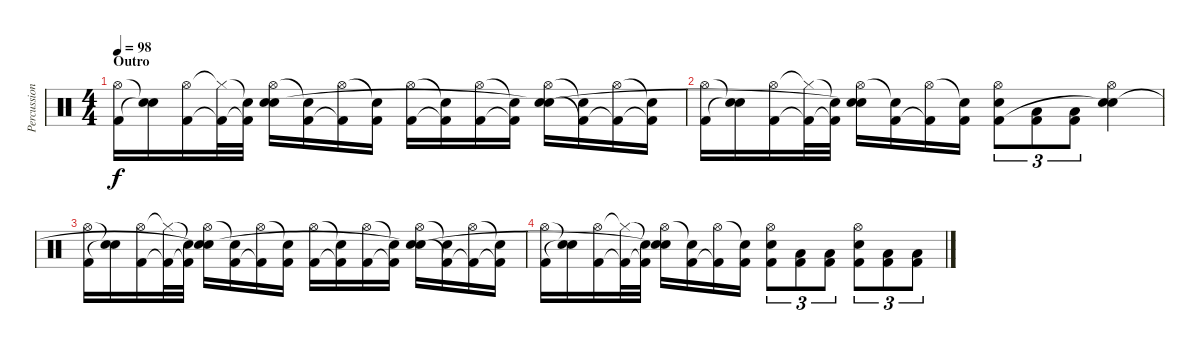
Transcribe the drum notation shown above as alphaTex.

\track ("Percussion" "Percussion") {instrument percussion}
\staff {score}
\articulation defaults
\ts (4 4)
\section ("" "Outro")
\tempo 98
\clef neutral
\ks c
("Hi-Hat (open)" "Kick (hit) 2").16{dy f} ("Snare (hit)"{t} "Snare (hit)"{t}).16 ("Hi-Hat (open)" "Kick (hit) 2").16 ("Hi-Hat (closed)"{t} "Kick (hit) 2"{t}).32 ("Snare (hit)"{t} "Kick (hit) 2"{t}).32 ("Hi-Hat (open)" "Electric Snare (hit)" "Snare (hit)"{t}).16 ("Snare (hit)"{t} "Kick (hit) 2").16 ("Hi-Hat (open)" "Kick (hit) 2"{t}).16 ("Snare (hit)"{t} "Kick (hit) 2").16 ("Hi-Hat (open)" "Kick (hit) 2").16 ("Snare (hit)"{t} "Kick (hit) 2"{t}).16 ("Hi-Hat (open)" "Kick (hit) 2").16 ("Snare (hit)"{t} "Kick (hit) 2"{t}).16 ("Hi-Hat (open)" "Electric Snare (hit)" "Snare (hit)"{t}).16 ("Snare (hit)"{t} "Kick (hit) 2"{t}).16 ("Hi-Hat (open)" "Kick (hit) 2"{t}).16 ("Snare (hit)"{t} "Kick (hit) 2"{t}).16 |
("Hi-Hat (open)" "Kick (hit) 2").16 ("Snare (hit)"{t} "Snare (hit)"{t}).16 ("Hi-Hat (open)" "Kick (hit) 2").16 ("Hi-Hat (closed)"{t} "Kick (hit) 2"{t}).32 ("Snare (hit)"{t} "Kick (hit) 2"{t}).32 ("Hi-Hat (open)" "Electric Snare (hit)" "Snare (hit)"{t}).16 ("Snare (hit)"{t} "Kick (hit) 2").16 ("Hi-Hat (open)" "Kick (hit) 2"{t}).16 ("Snare (hit)"{t} "Kick (hit) 2").16 ("Hi-Hat (open)" "Snare (hit) 2" "Kick (hit) 2").8{tu (3 2)} ("Low Tom (hit)" "Kick (hit) 2").8{tu (3 2)} ("Low Tom (hit)" "Kick (hit) 2").8{tu (3 2)} ("Hi-Hat (open)" "Electric Snare (hit)" "Snare (hit)"{t}).4 |
("Hi-Hat (open)" "Kick (hit) 2").16 ("Snare (hit)"{t} "Snare (hit)"{t}).16 ("Hi-Hat (open)" "Kick (hit) 2").16 ("Hi-Hat (closed)"{t} "Kick (hit) 2"{t}).32 ("Snare (hit)"{t} "Kick (hit) 2"{t}).32 ("Hi-Hat (open)" "Electric Snare (hit)" "Snare (hit)"{t}).16 ("Snare (hit)"{t} "Kick (hit) 2").16 ("Hi-Hat (open)" "Kick (hit) 2"{t}).16 ("Snare (hit)"{t} "Kick (hit) 2").16 ("Hi-Hat (open)" "Kick (hit) 2").16 ("Snare (hit)"{t} "Kick (hit) 2"{t}).16 ("Hi-Hat (open)" "Kick (hit) 2").16 ("Snare (hit)"{t} "Kick (hit) 2"{t}).16 ("Hi-Hat (open)" "Electric Snare (hit)" "Snare (hit)"{t}).16 ("Snare (hit)"{t} "Kick (hit) 2"{t}).16 ("Hi-Hat (open)" "Kick (hit) 2"{t}).16 ("Snare (hit)"{t} "Kick (hit) 2"{t}).16 |
("Hi-Hat (open)" "Kick (hit) 2").16 ("Snare (hit)"{t} "Snare (hit)"{t}).16 ("Hi-Hat (open)" "Kick (hit) 2").16 ("Hi-Hat (closed)"{t} "Kick (hit) 2"{t}).32 ("Snare (hit)"{t} "Kick (hit) 2"{t}).32 ("Hi-Hat (open)" "Electric Snare (hit)" "Snare (hit)"{t}).16 ("Snare (hit)"{t} "Kick (hit) 2").16 ("Hi-Hat (open)" "Kick (hit) 2"{t}).16 ("Snare (hit)"{t} "Kick (hit) 2").16 ("Hi-Hat (open)" "Snare (hit) 2" "Kick (hit) 2").8{tu (3 2)} ("Low Tom (hit)" "Kick (hit) 2").8{tu (3 2)} ("Low Tom (hit)" "Kick (hit) 2").8{tu (3 2)} ("Hi-Hat (open)" "Snare (hit) 2" "Kick (hit) 2").8{tu (3 2)} ("Low Tom (hit)" "Kick (hit) 2").8{tu (3 2)} ("Low Tom (hit)" "Kick (hit) 2").8{tu (3 2)}
